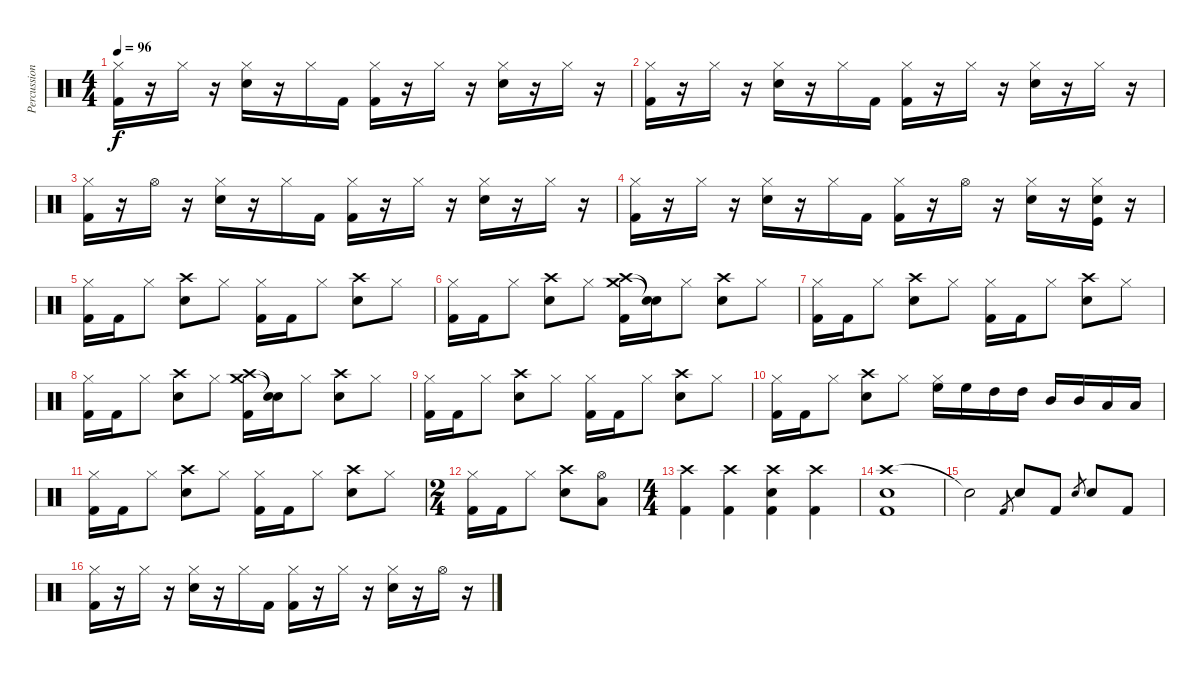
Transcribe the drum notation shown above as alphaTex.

\track ("Percussion" "Percussion") {instrument percussion}
\staff {score}
\articulation defaults
\ts (4 4)
\tempo 96
\clef neutral
\ks c
("Hi-Hat (closed)" "Kick (hit) 2").16{dy f} r.16 "Hi-Hat (closed)".16 r.16 ("Hi-Hat (closed)" "Snare (hit) 2").16 r.16 "Hi-Hat (closed)".16 "Kick (hit) 2".16 ("Hi-Hat (closed)" "Kick (hit) 2").16 r.16 "Hi-Hat (closed)".16 r.16 ("Hi-Hat (closed)" "Snare (hit) 2").16 r.16 "Hi-Hat (closed)".16 r.16 |
("Hi-Hat (closed)" "Kick (hit) 2").16 r.16 "Hi-Hat (closed)".16 r.16 ("Hi-Hat (closed)" "Snare (hit) 2").16 r.16 "Hi-Hat (closed)".16 "Kick (hit) 2".16 ("Hi-Hat (closed)" "Kick (hit) 2").16 r.16 "Hi-Hat (closed)".16 r.16 ("Hi-Hat (closed)" "Snare (hit) 2").16 r.16 "Hi-Hat (closed)".16 r.16 |
("Hi-Hat (closed)" "Kick (hit) 2").16 r.16 "Hi-Hat (open)".16 r.16 ("Hi-Hat (closed)" "Snare (hit) 2").16 r.16 "Hi-Hat (closed)".16 "Kick (hit) 2".16 ("Hi-Hat (closed)" "Kick (hit) 2").16 r.16 "Hi-Hat (closed)".16 r.16 ("Hi-Hat (closed)" "Snare (hit) 2").16 r.16 "Hi-Hat (closed)".16 r.16 |
("Hi-Hat (closed)" "Kick (hit) 2").16 r.16 "Hi-Hat (closed)".16 r.16 ("Hi-Hat (closed)" "Snare (hit) 2").16 r.16 "Hi-Hat (closed)".16 "Kick (hit) 2".16 ("Hi-Hat (closed)" "Kick (hit) 2").16 r.16 "Hi-Hat (open)".16 r.16 ("Hi-Hat (closed)" "Snare (hit) 2").16 r.16 ("Hi-Hat (closed)" "Kick (hit)" "Snare (hit) 2").16 r.16 |
("Hi-Hat (closed)" "Kick (hit) 2").16 "Kick (hit) 2".16 "Hi-Hat (closed)".8 ("Crash high (hit)" "Snare (hit) 2").8 "Hi-Hat (closed)".8 ("Hi-Hat (closed)" "Kick (hit) 2").16 "Kick (hit) 2".16 "Hi-Hat (closed)".8 ("Crash high (hit)" "Snare (hit) 2").8 "Hi-Hat (closed)".8 |
("Hi-Hat (closed)" "Kick (hit) 2").16 "Kick (hit) 2".16 "Hi-Hat (closed)".8 ("Crash high (hit)" "Snare (hit) 2").8 "Hi-Hat (closed)".8 ("Crash high (hit)" "Crash medium (hit)" "Kick (hit) 2").16 ("Snare (hit)"{t} "Snare (hit)"{t}).16 "Hi-Hat (closed)".8 ("Crash high (hit)" "Snare (hit) 2").8 "Hi-Hat (closed)".8 |
("Hi-Hat (closed)" "Kick (hit) 2").16 "Kick (hit) 2".16 "Hi-Hat (closed)".8 ("Crash high (hit)" "Snare (hit) 2").8 "Hi-Hat (closed)".8 ("Hi-Hat (closed)" "Kick (hit) 2").16 "Kick (hit) 2".16 "Hi-Hat (closed)".8 ("Crash high (hit)" "Snare (hit) 2").8 "Hi-Hat (closed)".8 |
("Hi-Hat (closed)" "Kick (hit) 2").16 "Kick (hit) 2".16 "Hi-Hat (closed)".8 ("Crash high (hit)" "Snare (hit) 2").8 "Hi-Hat (closed)".8 ("Crash high (hit)" "Crash medium (hit)" "Kick (hit) 2").16 ("Snare (hit)"{t} "Snare (hit)"{t}).16 "Hi-Hat (closed)".8 ("Crash high (hit)" "Snare (hit) 2").8 "Hi-Hat (closed)".8 |
("Hi-Hat (closed)" "Kick (hit) 2").16 "Kick (hit) 2".16 "Hi-Hat (closed)".8 ("Crash high (hit)" "Snare (hit) 2").8 "Hi-Hat (closed)".8 ("Hi-Hat (closed)" "Kick (hit) 2").16 "Kick (hit) 2".16 "Hi-Hat (closed)".8 ("Crash high (hit)" "Snare (hit) 2").8 "Hi-Hat (closed)".8 |
("Hi-Hat (closed)" "Kick (hit) 2").16 "Kick (hit) 2".16 "Hi-Hat (closed)".8 ("Crash high (hit)" "Snare (hit) 2").8 "Hi-Hat (closed)".8 ("Hi-Hat (closed)" "High Floor Tom (hit)").16 "High Floor Tom (hit)".16 "High Tom (hit)".16 "High Tom (hit)".16 "Mid Tom (hit)".16 "Mid Tom (hit)".16 "Low Floor Tom (hit)".16 "Low Floor Tom (hit)".16 |
("Hi-Hat (closed)" "Kick (hit) 2").16 "Kick (hit) 2".16 "Hi-Hat (closed)".8 ("Crash high (hit)" "Snare (hit) 2").8 "Hi-Hat (closed)".8 ("Hi-Hat (closed)" "Kick (hit) 2").16 "Kick (hit) 2".16 "Hi-Hat (closed)".8 ("Crash high (hit)" "Snare (hit) 2").8 "Hi-Hat (closed)".8 |
\ts (2 4)
("Hi-Hat (closed)" "Kick (hit) 2").16 "Kick (hit) 2".16 "Hi-Hat (closed)".8 ("Crash high (hit)" "Snare (hit) 2").8 ("Hi-Hat (open)" "Low Floor Tom (hit)").8 |
\ts (4 4)
("Crash high (hit)" "Kick (hit) 2").4 ("Crash high (hit)" "Kick (hit) 2").4 ("Crash high (hit)" "Snare (hit) 2" "Kick (hit) 2").4 ("Crash high (hit)" "Kick (hit) 2").4 |
("Crash high (hit)" "Snare (hit) 2" "Kick (hit) 2").1 |
"Snare (hit)"{t}.2 "Kick (hit) 2".8{gr} "Snare (hit) 2".8 "Kick (hit) 2".8 "Snare (hit) 2".8{gr} "Snare (hit) 2".8 "Kick (hit) 2".8 |
("Hi-Hat (closed)" "Kick (hit) 2").16 r.16 "Hi-Hat (closed)".16 r.16 ("Hi-Hat (closed)" "Snare (hit) 2").16 r.16 "Hi-Hat (closed)".16 "Kick (hit) 2".16 ("Hi-Hat (closed)" "Kick (hit) 2").16 r.16 "Hi-Hat (closed)".16 r.16 ("Hi-Hat (closed)" "Snare (hit) 2").16 r.16 "Hi-Hat (open)".16 r.16
